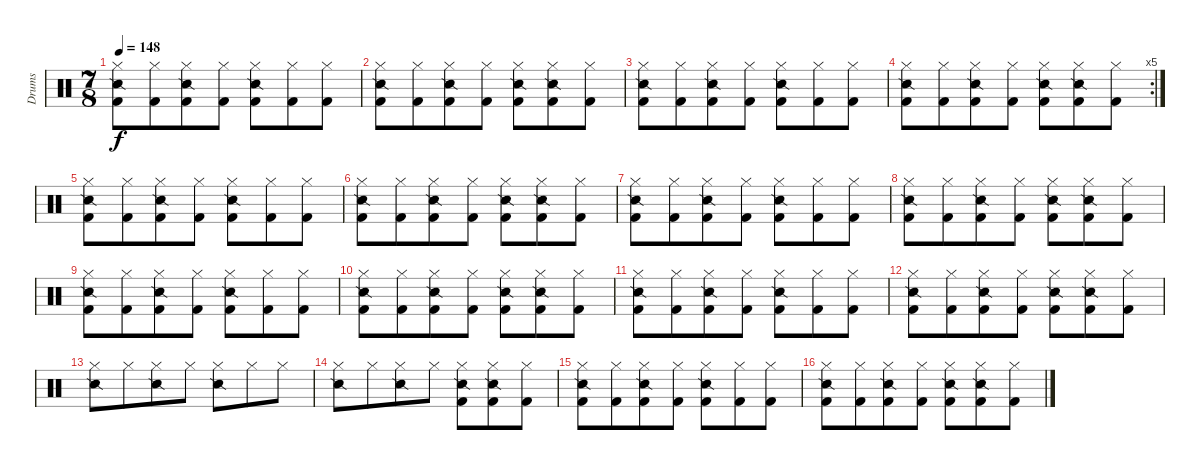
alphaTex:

\track ("Drums" "Drums") {instrument percussion}
\staff {score}
\articulation defaults
\ts (7 8)
\tempo 148
\tempo 150
\tempo 148
\clef neutral
\ks c
("Hi-Hat (closed)" "Snare (side stick) 2" "Kick (hit) 2").8{dy f} ("Hi-Hat (closed)" "Kick (hit) 2").8 ("Hi-Hat (closed)" "Snare (side stick) 2" "Kick (hit) 2").8 ("Hi-Hat (closed)" "Kick (hit) 2").8 ("Hi-Hat (closed)" "Snare (side stick) 2" "Kick (hit) 2").8 ("Hi-Hat (closed)" "Kick (hit) 2").8 ("Hi-Hat (closed)" "Kick (hit) 2").8 |
("Hi-Hat (closed)" "Snare (side stick) 2" "Kick (hit) 2").8 ("Hi-Hat (closed)" "Kick (hit) 2").8 ("Hi-Hat (closed)" "Snare (side stick) 2" "Kick (hit) 2").8 ("Hi-Hat (closed)" "Kick (hit) 2").8 ("Hi-Hat (closed)" "Snare (side stick) 2" "Kick (hit) 2").8 ("Hi-Hat (closed)" "Snare (side stick) 2" "Kick (hit) 2").8 ("Hi-Hat (closed)" "Kick (hit) 2").8 |
("Hi-Hat (closed)" "Snare (side stick) 2" "Kick (hit) 2").8 ("Hi-Hat (closed)" "Kick (hit) 2").8 ("Hi-Hat (closed)" "Snare (side stick) 2" "Kick (hit) 2").8 ("Hi-Hat (closed)" "Kick (hit) 2").8 ("Hi-Hat (closed)" "Snare (side stick) 2" "Kick (hit) 2").8 ("Hi-Hat (closed)" "Kick (hit) 2").8 ("Hi-Hat (closed)" "Kick (hit) 2").8 |
\rc 5
("Hi-Hat (closed)" "Snare (side stick) 2" "Kick (hit) 2").8 ("Hi-Hat (closed)" "Kick (hit) 2").8 ("Hi-Hat (closed)" "Snare (side stick) 2" "Kick (hit) 2").8 ("Hi-Hat (closed)" "Kick (hit) 2").8 ("Hi-Hat (closed)" "Snare (side stick) 2" "Kick (hit) 2").8 ("Hi-Hat (closed)" "Snare (side stick) 2" "Kick (hit) 2").8 ("Hi-Hat (closed)" "Kick (hit) 2").8 |
("Hi-Hat (closed)" "Snare (side stick) 2" "Kick (hit) 2").8 ("Hi-Hat (closed)" "Kick (hit) 2").8 ("Hi-Hat (closed)" "Snare (side stick) 2" "Kick (hit) 2").8 ("Hi-Hat (closed)" "Kick (hit) 2").8 ("Hi-Hat (closed)" "Snare (side stick) 2" "Kick (hit) 2").8 ("Hi-Hat (closed)" "Kick (hit) 2").8 ("Hi-Hat (closed)" "Kick (hit) 2").8 |
("Hi-Hat (closed)" "Snare (side stick) 2" "Kick (hit) 2").8 ("Hi-Hat (closed)" "Kick (hit) 2").8 ("Hi-Hat (closed)" "Snare (side stick) 2" "Kick (hit) 2").8 ("Hi-Hat (closed)" "Kick (hit) 2").8 ("Hi-Hat (closed)" "Snare (side stick) 2" "Kick (hit) 2").8 ("Hi-Hat (closed)" "Snare (side stick) 2" "Kick (hit) 2").8 ("Hi-Hat (closed)" "Kick (hit) 2").8 |
("Hi-Hat (closed)" "Snare (side stick) 2" "Kick (hit) 2").8 ("Hi-Hat (closed)" "Kick (hit) 2").8 ("Hi-Hat (closed)" "Snare (side stick) 2" "Kick (hit) 2").8 ("Hi-Hat (closed)" "Kick (hit) 2").8 ("Hi-Hat (closed)" "Snare (side stick) 2" "Kick (hit) 2").8 ("Hi-Hat (closed)" "Kick (hit) 2").8 ("Hi-Hat (closed)" "Kick (hit) 2").8 |
("Hi-Hat (closed)" "Snare (side stick) 2" "Kick (hit) 2").8 ("Hi-Hat (closed)" "Kick (hit) 2").8 ("Hi-Hat (closed)" "Snare (side stick) 2" "Kick (hit) 2").8 ("Hi-Hat (closed)" "Kick (hit) 2").8 ("Hi-Hat (closed)" "Snare (side stick) 2" "Kick (hit) 2").8 ("Hi-Hat (closed)" "Snare (side stick) 2" "Kick (hit) 2").8 ("Hi-Hat (closed)" "Kick (hit) 2").8 |
("Hi-Hat (closed)" "Snare (side stick) 2" "Kick (hit) 2").8 ("Hi-Hat (closed)" "Kick (hit) 2").8 ("Hi-Hat (closed)" "Snare (side stick) 2" "Kick (hit) 2").8 ("Hi-Hat (closed)" "Kick (hit) 2").8 ("Hi-Hat (closed)" "Snare (side stick) 2" "Kick (hit) 2").8 ("Hi-Hat (closed)" "Kick (hit) 2").8 ("Hi-Hat (closed)" "Kick (hit) 2").8 |
("Hi-Hat (closed)" "Snare (side stick) 2" "Kick (hit) 2").8 ("Hi-Hat (closed)" "Kick (hit) 2").8 ("Hi-Hat (closed)" "Snare (side stick) 2" "Kick (hit) 2").8 ("Hi-Hat (closed)" "Kick (hit) 2").8 ("Hi-Hat (closed)" "Snare (side stick) 2" "Kick (hit) 2").8 ("Hi-Hat (closed)" "Snare (side stick) 2" "Kick (hit) 2").8 ("Hi-Hat (closed)" "Kick (hit) 2").8 |
("Hi-Hat (closed)" "Snare (side stick) 2" "Kick (hit) 2").8 ("Hi-Hat (closed)" "Kick (hit) 2").8 ("Hi-Hat (closed)" "Snare (side stick) 2" "Kick (hit) 2").8 ("Hi-Hat (closed)" "Kick (hit) 2").8 ("Hi-Hat (closed)" "Snare (side stick) 2" "Kick (hit) 2").8 ("Hi-Hat (closed)" "Kick (hit) 2").8 ("Hi-Hat (closed)" "Kick (hit) 2").8 |
("Hi-Hat (closed)" "Snare (side stick) 2" "Kick (hit) 2").8 ("Hi-Hat (closed)" "Kick (hit) 2").8 ("Hi-Hat (closed)" "Snare (side stick) 2" "Kick (hit) 2").8 ("Hi-Hat (closed)" "Kick (hit) 2").8 ("Hi-Hat (closed)" "Snare (side stick) 2" "Kick (hit) 2").8 ("Hi-Hat (closed)" "Snare (side stick) 2" "Kick (hit) 2").8 ("Hi-Hat (closed)" "Kick (hit) 2").8 |
("Hi-Hat (closed)" "Snare (side stick) 2").8 "Hi-Hat (closed)".8 ("Hi-Hat (closed)" "Snare (side stick) 2").8 "Hi-Hat (closed)".8 ("Hi-Hat (closed)" "Snare (side stick) 2").8 "Hi-Hat (closed)".8 "Hi-Hat (closed)".8 |
("Hi-Hat (closed)" "Snare (side stick) 2").8 "Hi-Hat (closed)".8 ("Hi-Hat (closed)" "Snare (side stick) 2").8 "Hi-Hat (closed)".8 ("Hi-Hat (closed)" "Snare (side stick) 2" "Kick (hit) 2").8 ("Hi-Hat (closed)" "Snare (side stick) 2" "Kick (hit) 2").8 ("Hi-Hat (closed)" "Kick (hit) 2").8 |
("Hi-Hat (closed)" "Snare (side stick) 2" "Kick (hit) 2").8 ("Hi-Hat (closed)" "Kick (hit) 2").8 ("Hi-Hat (closed)" "Snare (side stick) 2" "Kick (hit) 2").8 ("Hi-Hat (closed)" "Kick (hit) 2").8 ("Hi-Hat (closed)" "Snare (side stick) 2" "Kick (hit) 2").8 ("Hi-Hat (closed)" "Kick (hit) 2").8 ("Hi-Hat (closed)" "Kick (hit) 2").8 |
("Hi-Hat (closed)" "Snare (side stick) 2" "Kick (hit) 2").8 ("Hi-Hat (closed)" "Kick (hit) 2").8 ("Hi-Hat (closed)" "Snare (side stick) 2" "Kick (hit) 2").8 ("Hi-Hat (closed)" "Kick (hit) 2").8 ("Hi-Hat (closed)" "Snare (side stick) 2" "Kick (hit) 2").8 ("Hi-Hat (closed)" "Snare (side stick) 2" "Kick (hit) 2").8 ("Hi-Hat (closed)" "Kick (hit) 2").8
